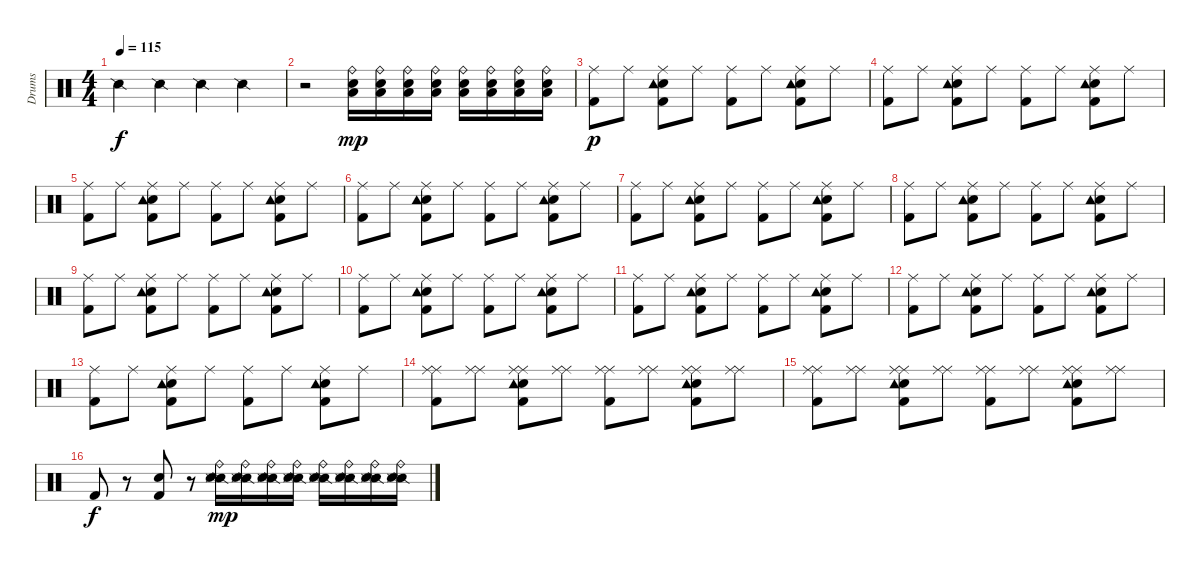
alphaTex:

\track ("Drums" "Drums") {instrument percussion}
\staff {score}
\articulation defaults
\ts (4 4)
\tempo 115
\clef neutral
\ks c "Snare (side stick) 2".4{dy f} "Snare (side stick) 2".4 "Snare (side stick) 2".4 "Snare (side stick) 2".4
|
r.2 ("Ride (bell)" "Low Floor Tom (hit)" "Snare (hit) 2").16{dy mp} ("Ride (bell)" "Low Floor Tom (hit)" "Snare (hit) 2").16 ("Ride (bell)" "Low Floor Tom (hit)" "Snare (hit) 2").16 ("Ride (bell)" "Low Floor Tom (hit)" "Snare (hit) 2").16 ("Ride (bell)" "Low Floor Tom (hit)" "Snare (hit) 2").16 ("Ride (bell)" "Low Floor Tom (hit)" "Snare (hit) 2").16 ("Ride (bell)" "Low Floor Tom (hit)" "Snare (hit) 2").16 ("Ride (bell)" "Low Floor Tom (hit)" "Snare (hit) 2").16 |
("Kick (hit) 2" "Ride (middle)").8{dy p} "Ride (middle)".8 ("Kick (hit) 2" "Snare (hit) 2" "Tambourine (hit)" "Ride (middle)").8 "Ride (middle)".8 ("Kick (hit) 2" "Ride (middle)").8 "Ride (middle)".8 ("Kick (hit) 2" "Snare (hit) 2" "Tambourine (hit)" "Ride (middle)").8 "Ride (middle)".8 |
("Kick (hit) 2" "Ride (middle)").8 "Ride (middle)".8 ("Snare (hit) 2" "Kick (hit) 2" "Tambourine (hit)" "Ride (middle)").8 "Ride (middle)".8 ("Kick (hit) 2" "Ride (middle)").8 "Ride (middle)".8 ("Snare (hit) 2" "Kick (hit) 2" "Tambourine (hit)" "Ride (middle)").8 "Ride (middle)".8 |
("Kick (hit) 2" "Ride (middle)").8 "Ride (middle)".8 ("Kick (hit) 2" "Snare (hit) 2" "Tambourine (hit)" "Ride (middle)").8 "Ride (middle)".8 ("Kick (hit) 2" "Ride (middle)").8 "Ride (middle)".8 ("Kick (hit) 2" "Snare (hit) 2" "Tambourine (hit)" "Ride (middle)").8 "Ride (middle)".8 |
("Kick (hit) 2" "Ride (middle)").8 "Ride (middle)".8 ("Snare (hit) 2" "Kick (hit) 2" "Tambourine (hit)" "Ride (middle)").8 "Ride (middle)".8 ("Kick (hit) 2" "Ride (middle)").8 "Ride (middle)".8 ("Snare (hit) 2" "Kick (hit) 2" "Tambourine (hit)" "Ride (middle)").8 "Ride (middle)".8 |
("Kick (hit) 2" "Ride (middle)").8 "Ride (middle)".8 ("Kick (hit) 2" "Snare (hit) 2" "Tambourine (hit)" "Ride (middle)").8 "Ride (middle)".8 ("Kick (hit) 2" "Ride (middle)").8 "Ride (middle)".8 ("Kick (hit) 2" "Snare (hit) 2" "Tambourine (hit)" "Ride (middle)").8 "Ride (middle)".8 |
("Kick (hit) 2" "Ride (middle)").8 "Ride (middle)".8 ("Snare (hit) 2" "Kick (hit) 2" "Tambourine (hit)" "Ride (middle)").8 "Ride (middle)".8 ("Kick (hit) 2" "Ride (middle)").8 "Ride (middle)".8 ("Snare (hit) 2" "Kick (hit) 2" "Tambourine (hit)" "Ride (middle)").8 "Ride (middle)".8 |
("Kick (hit) 2" "Ride (middle)").8 "Ride (middle)".8 ("Kick (hit) 2" "Snare (hit) 2" "Tambourine (hit)" "Ride (middle)").8 "Ride (middle)".8 ("Kick (hit) 2" "Ride (middle)").8 "Ride (middle)".8 ("Kick (hit) 2" "Snare (hit) 2" "Tambourine (hit)" "Ride (middle)").8 "Ride (middle)".8 |
("Kick (hit) 2" "Ride (middle)").8 "Ride (middle)".8 ("Snare (hit) 2" "Kick (hit) 2" "Tambourine (hit)" "Ride (middle)").8 "Ride (middle)".8 ("Kick (hit) 2" "Ride (middle)").8 "Ride (middle)".8 ("Snare (hit) 2" "Kick (hit) 2" "Tambourine (hit)" "Ride (middle)").8 "Ride (middle)".8 |
("Kick (hit) 2" "Ride (middle)").8 "Ride (middle)".8 ("Kick (hit) 2" "Snare (hit) 2" "Tambourine (hit)" "Ride (middle)").8 "Ride (middle)".8 ("Kick (hit) 2" "Ride (middle)").8 "Ride (middle)".8 ("Kick (hit) 2" "Snare (hit) 2" "Tambourine (hit)" "Ride (middle)").8 "Ride (middle)".8 |
("Kick (hit) 2" "Ride (middle)").8 "Ride (middle)".8 ("Snare (hit) 2" "Kick (hit) 2" "Tambourine (hit)" "Ride (middle)").8 "Ride (middle)".8 ("Kick (hit) 2" "Ride (middle)").8 "Ride (middle)".8 ("Snare (hit) 2" "Kick (hit) 2" "Tambourine (hit)" "Ride (middle)").8 "Ride (middle)".8 |
("Kick (hit) 2" "Ride (middle)").8 "Ride (middle)".8 ("Snare (hit) 2" "Kick (hit) 2" "Tambourine (hit)" "Ride (middle)").8 "Ride (middle)".8 ("Kick (hit) 2" "Ride (middle)").8 "Ride (middle)".8 ("Snare (hit) 2" "Kick (hit) 2" "Tambourine (hit)" "Ride (middle)").8 "Ride (middle)".8 |
("Kick (hit) 2" "Ride (middle)" "Ride (middle)").8 ("Ride (middle)" "Ride (middle)").8 ("Kick (hit) 2" "Snare (hit) 2" "Tambourine (hit)" "Ride (middle)" "Ride (middle)").8 ("Ride (middle)" "Ride (middle)").8 ("Kick (hit) 2" "Ride (middle)" "Ride (middle)").8 ("Ride (middle)" "Ride (middle)").8 ("Kick (hit) 2" "Snare (hit) 2" "Tambourine (hit)" "Ride (middle)" "Ride (middle)").8 ("Ride (middle)" "Ride (middle)").8 |
("Kick (hit) 2" "Ride (middle)" "Ride (middle)").8 ("Ride (middle)" "Ride (middle)").8 ("Kick (hit) 2" "Snare (hit) 2" "Ride (middle)" "Ride (middle)" "Tambourine (hit)").8 ("Ride (middle)" "Ride (middle)").8 ("Kick (hit) 2" "Ride (middle)" "Ride (middle)").8 ("Ride (middle)" "Ride (middle)").8 ("Kick (hit) 2" "Snare (hit) 2" "Ride (middle)" "Ride (middle)" "Tambourine (hit)").8 ("Ride (middle)" "Ride (middle)").8 |
"Kick (hit) 2".8{dy f} r.8 ("Kick (hit) 2" "Snare (hit) 2").8 r.8 ("Snare (side stick) 2" "Snare (hit) 2" "Metronome (hit)" "Ride (bell)").16{dy mp} ("Snare (side stick) 2" "Snare (hit) 2" "Metronome (hit)" "Ride (bell)").16 ("Snare (side stick) 2" "Snare (hit) 2" "Metronome (hit)" "Ride (bell)").16 ("Snare (side stick) 2" "Snare (hit) 2" "Metronome (hit)" "Ride (bell)").16 ("Snare (side stick) 2" "Snare (hit) 2" "Metronome (hit)" "Ride (bell)").16 ("Snare (side stick) 2" "Snare (hit) 2" "Metronome (hit)" "Ride (bell)").16 ("Snare (side stick) 2" "Snare (hit) 2" "Metronome (hit)" "Ride (bell)").16 ("Snare (side stick) 2" "Snare (hit) 2" "Metronome (hit)" "Ride (bell)").16
